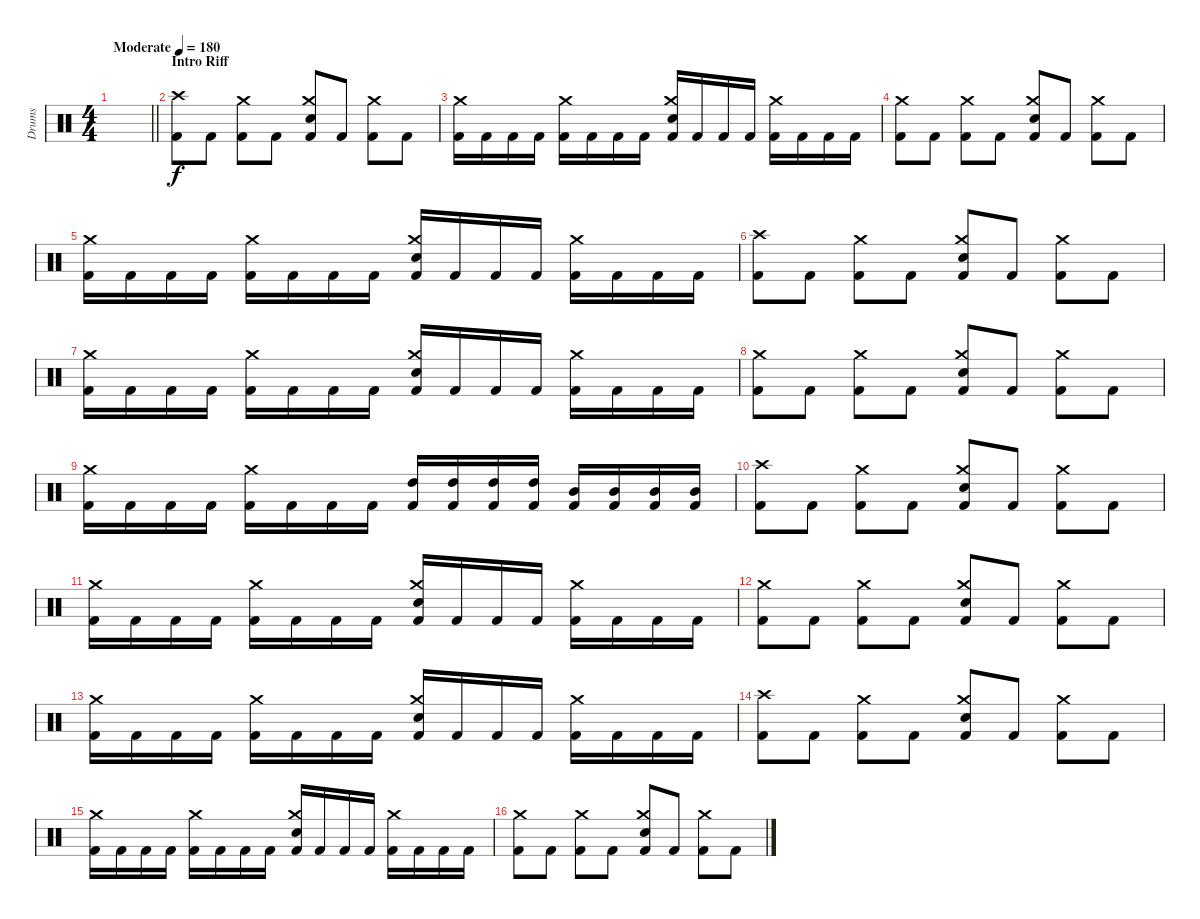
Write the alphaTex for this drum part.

\track ("Drums" "Drums") {instrument percussion}
\staff {score}
\articulation defaults
\ts (4 4)
\tempo (180 "Moderate")
\clef neutral
\barLineRight lightlight
\ks c
|
\section ("" "Intro Riff")
("Crash high (hit)" "Kick (hit) 2").8 "Kick (hit) 2".8 ("Crash medium (hit)" "Kick (hit) 2").8 "Kick (hit) 2".8 ("Crash medium (hit)" "Snare (hit) 2" "Kick (hit) 2").8 "Kick (hit) 2".8 ("Crash medium (hit)" "Kick (hit) 2").8 "Kick (hit) 2".8 |
("Crash medium (hit)" "Kick (hit) 2").16 "Kick (hit) 2".16 "Kick (hit) 2".16 "Kick (hit) 2".16 ("Crash medium (hit)" "Kick (hit) 2").16 "Kick (hit) 2".16 "Kick (hit) 2".16 "Kick (hit) 2".16 ("Crash medium (hit)" "Snare (hit) 2" "Kick (hit) 2").16 "Kick (hit) 2".16 "Kick (hit) 2".16 "Kick (hit) 2".16 ("Crash medium (hit)" "Kick (hit) 2").16 "Kick (hit) 2".16 "Kick (hit) 2".16 "Kick (hit) 2".16 |
("Crash medium (hit)" "Kick (hit) 2").8 "Kick (hit) 2".8 ("Crash medium (hit)" "Kick (hit) 2").8 "Kick (hit) 2".8 ("Crash medium (hit)" "Snare (hit) 2" "Kick (hit) 2").8 "Kick (hit) 2".8 ("Crash medium (hit)" "Kick (hit) 2").8 "Kick (hit) 2".8 |
("Crash medium (hit)" "Kick (hit) 2").16 "Kick (hit) 2".16 "Kick (hit) 2".16 "Kick (hit) 2".16 ("Crash medium (hit)" "Kick (hit) 2").16 "Kick (hit) 2".16 "Kick (hit) 2".16 "Kick (hit) 2".16 ("Crash medium (hit)" "Snare (hit) 2" "Kick (hit) 2").16 "Kick (hit) 2".16 "Kick (hit) 2".16 "Kick (hit) 2".16 ("Crash medium (hit)" "Kick (hit) 2").16 "Kick (hit) 2".16 "Kick (hit) 2".16 "Kick (hit) 2".16 |
("Crash high (hit)" "Kick (hit) 2").8 "Kick (hit) 2".8 ("Crash medium (hit)" "Kick (hit) 2").8 "Kick (hit) 2".8 ("Crash medium (hit)" "Snare (hit) 2" "Kick (hit) 2").8 "Kick (hit) 2".8 ("Crash medium (hit)" "Kick (hit) 2").8 "Kick (hit) 2".8 |
("Crash medium (hit)" "Kick (hit) 2").16 "Kick (hit) 2".16 "Kick (hit) 2".16 "Kick (hit) 2".16 ("Crash medium (hit)" "Kick (hit) 2").16 "Kick (hit) 2".16 "Kick (hit) 2".16 "Kick (hit) 2".16 ("Crash medium (hit)" "Snare (hit) 2" "Kick (hit) 2").16 "Kick (hit) 2".16 "Kick (hit) 2".16 "Kick (hit) 2".16 ("Crash medium (hit)" "Kick (hit) 2").16 "Kick (hit) 2".16 "Kick (hit) 2".16 "Kick (hit) 2".16 |
("Crash medium (hit)" "Kick (hit) 2").8 "Kick (hit) 2".8 ("Crash medium (hit)" "Kick (hit) 2").8 "Kick (hit) 2".8 ("Crash medium (hit)" "Snare (hit) 2" "Kick (hit) 2").8 "Kick (hit) 2".8 ("Crash medium (hit)" "Kick (hit) 2").8 "Kick (hit) 2".8 |
("Crash medium (hit)" "Kick (hit) 2").16 "Kick (hit) 2".16 "Kick (hit) 2".16 "Kick (hit) 2".16 ("Crash medium (hit)" "Kick (hit) 2").16 "Kick (hit) 2".16 "Kick (hit) 2".16 "Kick (hit) 2".16 ("High Tom (hit)" "Kick (hit) 2").16 ("High Tom (hit)" "Kick (hit) 2").16 ("High Tom (hit)" "Kick (hit) 2").16 ("High Tom (hit)" "Kick (hit) 2").16 ("Mid Tom (hit)" "Kick (hit) 2").16 ("Mid Tom (hit)" "Kick (hit) 2").16 ("Mid Tom (hit)" "Kick (hit) 2").16 ("Mid Tom (hit)" "Kick (hit) 2").16 |
("Crash high (hit)" "Kick (hit) 2").8 "Kick (hit) 2".8 ("Crash medium (hit)" "Kick (hit) 2").8 "Kick (hit) 2".8 ("Crash medium (hit)" "Snare (hit) 2" "Kick (hit) 2").8 "Kick (hit) 2".8 ("Crash medium (hit)" "Kick (hit) 2").8 "Kick (hit) 2".8 |
("Crash medium (hit)" "Kick (hit) 2").16 "Kick (hit) 2".16 "Kick (hit) 2".16 "Kick (hit) 2".16 ("Crash medium (hit)" "Kick (hit) 2").16 "Kick (hit) 2".16 "Kick (hit) 2".16 "Kick (hit) 2".16 ("Crash medium (hit)" "Snare (hit) 2" "Kick (hit) 2").16 "Kick (hit) 2".16 "Kick (hit) 2".16 "Kick (hit) 2".16 ("Crash medium (hit)" "Kick (hit) 2").16 "Kick (hit) 2".16 "Kick (hit) 2".16 "Kick (hit) 2".16 |
("Crash medium (hit)" "Kick (hit) 2").8 "Kick (hit) 2".8 ("Crash medium (hit)" "Kick (hit) 2").8 "Kick (hit) 2".8 ("Crash medium (hit)" "Snare (hit) 2" "Kick (hit) 2").8 "Kick (hit) 2".8 ("Crash medium (hit)" "Kick (hit) 2").8 "Kick (hit) 2".8 |
("Crash medium (hit)" "Kick (hit) 2").16 "Kick (hit) 2".16 "Kick (hit) 2".16 "Kick (hit) 2".16 ("Crash medium (hit)" "Kick (hit) 2").16 "Kick (hit) 2".16 "Kick (hit) 2".16 "Kick (hit) 2".16 ("Crash medium (hit)" "Snare (hit) 2" "Kick (hit) 2").16 "Kick (hit) 2".16 "Kick (hit) 2".16 "Kick (hit) 2".16 ("Crash medium (hit)" "Kick (hit) 2").16 "Kick (hit) 2".16 "Kick (hit) 2".16 "Kick (hit) 2".16 |
("Crash high (hit)" "Kick (hit) 2").8 "Kick (hit) 2".8 ("Crash medium (hit)" "Kick (hit) 2").8 "Kick (hit) 2".8 ("Crash medium (hit)" "Snare (hit) 2" "Kick (hit) 2").8 "Kick (hit) 2".8 ("Crash medium (hit)" "Kick (hit) 2").8 "Kick (hit) 2".8 |
("Crash medium (hit)" "Kick (hit) 2").16 "Kick (hit) 2".16 "Kick (hit) 2".16 "Kick (hit) 2".16 ("Crash medium (hit)" "Kick (hit) 2").16 "Kick (hit) 2".16 "Kick (hit) 2".16 "Kick (hit) 2".16 ("Crash medium (hit)" "Snare (hit) 2" "Kick (hit) 2").16 "Kick (hit) 2".16 "Kick (hit) 2".16 "Kick (hit) 2".16 ("Crash medium (hit)" "Kick (hit) 2").16 "Kick (hit) 2".16 "Kick (hit) 2".16 "Kick (hit) 2".16 |
("Crash medium (hit)" "Kick (hit) 2").8 "Kick (hit) 2".8 ("Crash medium (hit)" "Kick (hit) 2").8 "Kick (hit) 2".8 ("Crash medium (hit)" "Snare (hit) 2" "Kick (hit) 2").8 "Kick (hit) 2".8 ("Crash medium (hit)" "Kick (hit) 2").8 "Kick (hit) 2".8
